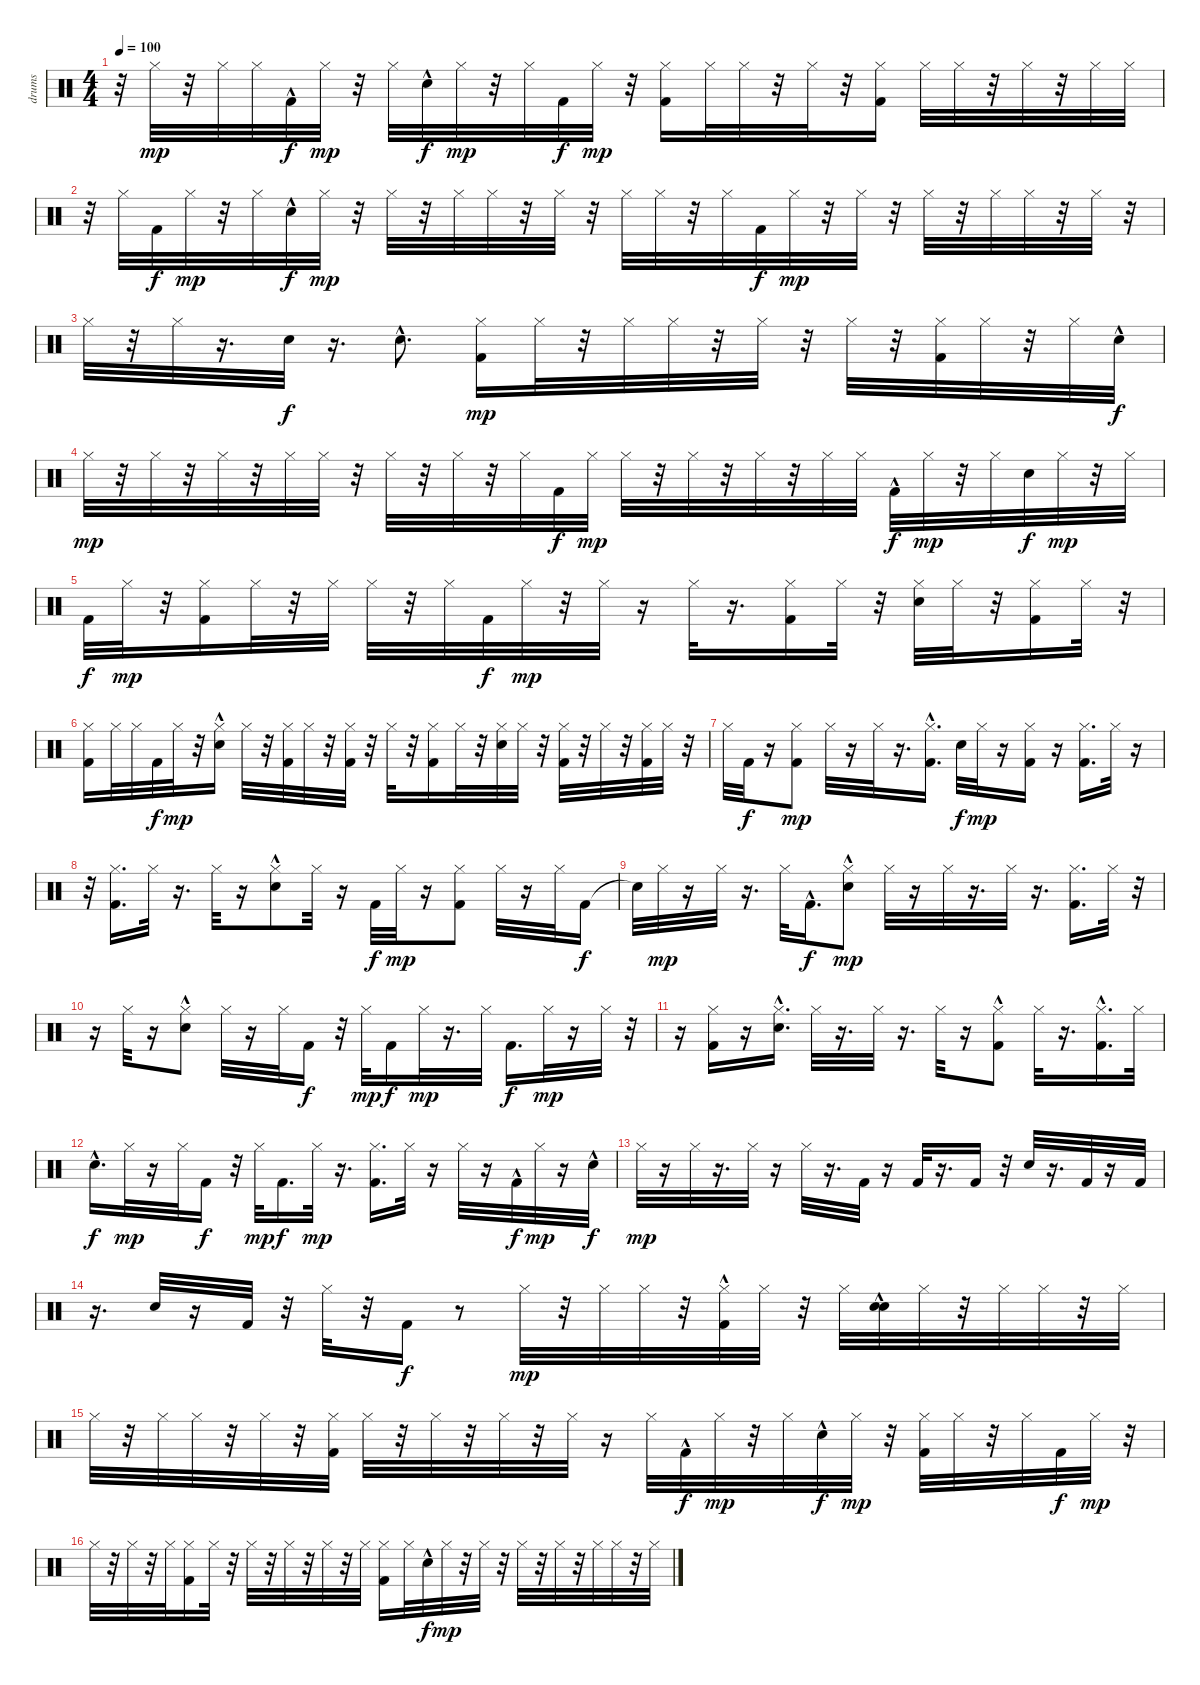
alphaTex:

\track ("drums" "drums") {instrument percussion}
\staff {score}
\articulation defaults
\ts (4 4)
\tempo 100
\clef neutral
\ks c
r.32{dy mp} "Hi-Hat (closed)".32 r.32 "Hi-Hat (closed)".32 "Hi-Hat (closed)".32 "Kick (hit) 2"{hac}.32{dy f} "Hi-Hat (closed)".32{dy mp} r.32 "Hi-Hat (closed)".32 "Electric Snare (hit)"{hac}.32{dy f} "Hi-Hat (closed)".32{dy mp} r.32 "Hi-Hat (closed)".32 "Kick (hit) 2".32{dy f} "Hi-Hat (closed)".32{dy mp} r.32 ("Hi-Hat (closed)" "Kick (hit) 2").16 "Hi-Hat (closed)".32 "Hi-Hat (closed)".32 r.32 "Hi-Hat (closed)".32 r.32 ("Hi-Hat (closed)" "Kick (hit) 2").16 "Hi-Hat (closed)".32 "Hi-Hat (closed)".32 r.32 "Hi-Hat (closed)".32 r.32 "Hi-Hat (closed)".32 "Hi-Hat (closed)".32 |
r.32 "Hi-Hat (closed)".32 "Kick (hit) 2".32{dy f} "Hi-Hat (closed)".32{dy mp} r.32 "Hi-Hat (closed)".32 "Electric Snare (hit)"{hac}.32{dy f} "Hi-Hat (closed)".32{dy mp} r.32 "Hi-Hat (closed)".32 r.32 "Hi-Hat (closed)".32 "Hi-Hat (closed)".32 r.32 "Hi-Hat (closed)".32 r.32 "Hi-Hat (closed)".32 "Hi-Hat (closed)".32 r.32 "Hi-Hat (closed)".32 "Kick (hit) 2".32{dy f} "Hi-Hat (closed)".32{dy mp} r.32 "Hi-Hat (closed)".32 r.32 "Hi-Hat (closed)".32 r.32 "Hi-Hat (closed)".32 "Hi-Hat (closed)".32 r.32 "Hi-Hat (closed)".32 r.32 |
"Hi-Hat (closed)".32 r.32 "Hi-Hat (closed)".32 r.16{d} "Electric Snare (hit)".32{dy f} r.16{d} "Electric Snare (hit)"{hac}.8{d} ("Hi-Hat (closed)" "Kick (hit) 2").16{dy mp} "Hi-Hat (closed)".32 r.32 "Hi-Hat (closed)".32 "Hi-Hat (closed)".32 r.32 "Hi-Hat (closed)".32 r.32 "Hi-Hat (closed)".32 r.32 ("Hi-Hat (closed)" "Kick (hit) 2").32 "Hi-Hat (closed)".32 r.32 "Hi-Hat (closed)".32 "Electric Snare (hit)"{hac}.32{dy f} |
"Hi-Hat (closed)".32{dy mp} r.32 "Hi-Hat (closed)".32 r.32 "Hi-Hat (closed)".32 r.32 "Hi-Hat (closed)".32 "Hi-Hat (closed)".32 r.32 "Hi-Hat (closed)".32 r.32 "Hi-Hat (closed)".32 r.32 "Hi-Hat (closed)".32 "Kick (hit) 2".32{dy f} "Hi-Hat (closed)".32{dy mp} "Hi-Hat (closed)".32 r.32 "Hi-Hat (closed)".32 r.32 "Hi-Hat (closed)".32 r.32 "Hi-Hat (closed)".32 "Hi-Hat (closed)".32 "Kick (hit) 2"{hac}.32{dy f} "Hi-Hat (closed)".32{dy mp} r.32 "Hi-Hat (closed)".32 "Electric Snare (hit)".32{dy f} "Hi-Hat (closed)".32{dy mp} r.32 "Hi-Hat (closed)".32 |
"Kick (hit) 2".32{dy f} "Hi-Hat (closed)".32{dy mp} r.32 ("Hi-Hat (closed)" "Kick (hit) 2").16 "Hi-Hat (closed)".32 r.32 "Hi-Hat (closed)".32 "Hi-Hat (closed)".32 r.32 "Hi-Hat (closed)".32 "Kick (hit) 2".32{dy f} "Hi-Hat (closed)".32{dy mp} r.32 "Hi-Hat (closed)".32 r.16 "Hi-Hat (closed)".32 r.16{d} ("Hi-Hat (closed)" "Kick (hit) 2").16 "Hi-Hat (closed)".32 r.32 ("Hi-Hat (closed)" "Electric Snare (hit)").32 "Hi-Hat (closed)".32 r.32 ("Kick (hit) 2" "Hi-Hat (closed)").16 "Hi-Hat (closed)".32 r.32 |
("Hi-Hat (closed)" "Kick (hit) 2").16 "Hi-Hat (closed)".32 "Hi-Hat (closed)".32 "Kick (hit) 2".32{dy f} "Hi-Hat (closed)".32{dy mp} r.32 ("Hi-Hat (closed)" "Electric Snare (hit)"{hac}).16 "Hi-Hat (closed)".32 r.32 ("Kick (hit) 2" "Hi-Hat (closed)").32 "Hi-Hat (closed)".32 r.32 ("Kick (hit) 2" "Hi-Hat (closed)").32 r.32 "Hi-Hat (closed)".32 r.32 ("Kick (hit) 2" "Hi-Hat (closed)").16 "Hi-Hat (closed)".32 r.32 ("Electric Snare (hit)" "Hi-Hat (closed)").32 "Hi-Hat (closed)".32 r.32 ("Kick (hit) 2" "Hi-Hat (closed)").32 r.32 "Hi-Hat (closed)".32 r.32 ("Hi-Hat (closed)" "Kick (hit) 2").32 "Hi-Hat (closed)".32 r.32 |
"Hi-Hat (closed)".32 "Kick (hit) 2".32{dy f} r.16 ("Hi-Hat (closed)" "Kick (hit) 2").8{dy mp} "Hi-Hat (closed)".32 r.16 "Hi-Hat (closed)".32 r.16{d} ("Kick (hit) 2"{hac} "Hi-Hat (closed)").16{d} "Electric Snare (hit)".32{dy f} "Hi-Hat (closed)".32{dy mp} r.16 ("Kick (hit) 2" "Hi-Hat (closed)").16 r.16 ("Hi-Hat (closed)" "Kick (hit) 2").16{d} "Hi-Hat (closed)".32 r.16 |
r.32 ("Kick (hit) 2" "Hi-Hat (closed)").16{d} "Hi-Hat (closed)".32 r.16{d} "Hi-Hat (closed)".32 r.16 ("Electric Snare (hit)"{hac} "Hi-Hat (closed)").8 "Hi-Hat (closed)".32 r.16 "Kick (hit) 2".32{dy f} "Hi-Hat (closed)".32{dy mp} r.16 ("Kick (hit) 2" "Hi-Hat (closed)").8 "Hi-Hat (closed)".32 r.16 "Hi-Hat (closed)".32 "Kick (hit) 2".16{dy f} |
"Snare (hit)"{t}.32 "Hi-Hat (closed)".32{dy mp} r.16 "Hi-Hat (closed)".32 r.16{d} "Hi-Hat (closed)".32 "Kick (hit) 2"{hac}.16{d dy f} ("Hi-Hat (closed)" "Electric Snare (hit)"{hac}).8{dy mp} "Hi-Hat (closed)".32 r.16 "Hi-Hat (closed)".32 r.16{d} "Hi-Hat (closed)".32 r.16{d} ("Kick (hit) 2" "Hi-Hat (closed)").16{d} "Hi-Hat (closed)".32 r.32 |
r.16 "Hi-Hat (closed)".32 r.16 ("Electric Snare (hit)"{hac} "Hi-Hat (closed)").8 "Hi-Hat (closed)".32 r.16 "Hi-Hat (closed)".32 "Kick (hit) 2".16{dy f} r.32 "Hi-Hat (closed)".32{dy mp} "Kick (hit) 2".16{dy f} "Hi-Hat (closed)".32{dy mp} r.16{d} "Hi-Hat (closed)".32 "Kick (hit) 2".16{d dy f} "Hi-Hat (closed)".32{dy mp} r.16 "Hi-Hat (closed)".32 r.32 |
r.16 ("Hi-Hat (closed)" "Kick (hit) 2").16 r.16 ("Hi-Hat (closed)" "Electric Snare (hit)"{hac}).16{d} "Hi-Hat (closed)".32 r.16{d} "Hi-Hat (closed)".32 r.16{d} "Hi-Hat (closed)".32 r.16 ("Kick (hit) 2"{hac} "Hi-Hat (closed)").8 "Hi-Hat (closed)".32 r.16{d} ("Hi-Hat (closed)" "Kick (hit) 2"{hac}).16{d} "Hi-Hat (closed)".32 |
"Electric Snare (hit)"{hac}.16{d dy f} "Hi-Hat (closed)".32{dy mp} r.16 "Hi-Hat (closed)".32 "Kick (hit) 2".16{dy f} r.32 "Hi-Hat (closed)".32{dy mp} "Kick (hit) 2".16{d dy f} "Hi-Hat (closed)".32{dy mp} r.16{d} ("Kick (hit) 2" "Hi-Hat (closed)").16{d} "Hi-Hat (closed)".32 r.16 "Hi-Hat (closed)".32 r.16 "Kick (hit) 2"{hac}.32{dy f} "Hi-Hat (closed)".32{dy mp} r.16 "Electric Snare (hit)"{hac}.32{dy f} |
"Hi-Hat (closed)".32{dy mp} r.16 "Hi-Hat (closed)".32 r.16{d} "Hi-Hat (closed)".32 r.16 "Hi-Hat (closed)".32 r.16{d} "Kick (hit) 2".32 r.16 "Kick (hit) 2".32 r.16{d} "Kick (hit) 2".16 r.32 "Electric Snare (hit)".32 r.16{d} "Kick (hit) 2".32 r.16 "Kick (hit) 2".32 |
r.16{d} "Electric Snare (hit)".32 r.16 "Kick (hit) 2".32 r.32 "Hi-Hat (closed)".32 r.32 "Kick (hit) 2".16{dy f} r.8 "Hi-Hat (closed)".32{dy mp} r.32 "Hi-Hat (closed)".32 "Hi-Hat (closed)".32 r.32 ("Hi-Hat (closed)" "Kick (hit) 2"{hac}).32 "Hi-Hat (closed)".32 r.32 "Hi-Hat (closed)".32 ("Electric Snare (hit)" "Electric Snare (hit)"{hac}).32 "Hi-Hat (closed)".32 r.32 "Hi-Hat (closed)".32 "Hi-Hat (closed)".32 r.32 "Hi-Hat (closed)".32 |
"Hi-Hat (closed)".32 r.32 "Hi-Hat (closed)".32 "Hi-Hat (closed)".32 r.32 "Hi-Hat (closed)".32 r.32 ("Hi-Hat (closed)" "Kick (hit) 2").32 "Hi-Hat (closed)".32 r.32 "Hi-Hat (closed)".32 r.32 "Hi-Hat (closed)".32 r.32 "Hi-Hat (closed)".32 r.16 "Hi-Hat (closed)".32 "Kick (hit) 2"{hac}.32{dy f} "Hi-Hat (closed)".32{dy mp} r.32 "Hi-Hat (closed)".32 "Electric Snare (hit)"{hac}.32{dy f} "Hi-Hat (closed)".32{dy mp} r.32 ("Hi-Hat (closed)" "Kick (hit) 2").32 "Hi-Hat (closed)".32 r.32 "Hi-Hat (closed)".32 "Kick (hit) 2".32{dy f} "Hi-Hat (closed)".32{dy mp} r.32 |
"Hi-Hat (closed)".32 r.32 "Hi-Hat (closed)".32 r.32 "Hi-Hat (closed)".32 ("Kick (hit) 2" "Hi-Hat (closed)").16 "Hi-Hat (closed)".32 r.32 "Hi-Hat (closed)".32 r.32 "Hi-Hat (closed)".32 r.32 "Hi-Hat (closed)".32 r.32 "Hi-Hat (closed)".32 ("Kick (hit) 2" "Hi-Hat (closed)").16 "Hi-Hat (closed)".32 "Electric Snare (hit)"{hac}.32{dy f} "Hi-Hat (closed)".32{dy mp} r.32 "Hi-Hat (closed)".32 r.32 "Hi-Hat (closed)".32 r.32 "Hi-Hat (closed)".32 r.32 "Hi-Hat (closed)".32 "Hi-Hat (closed)".32 r.32 "Hi-Hat (closed)".32
